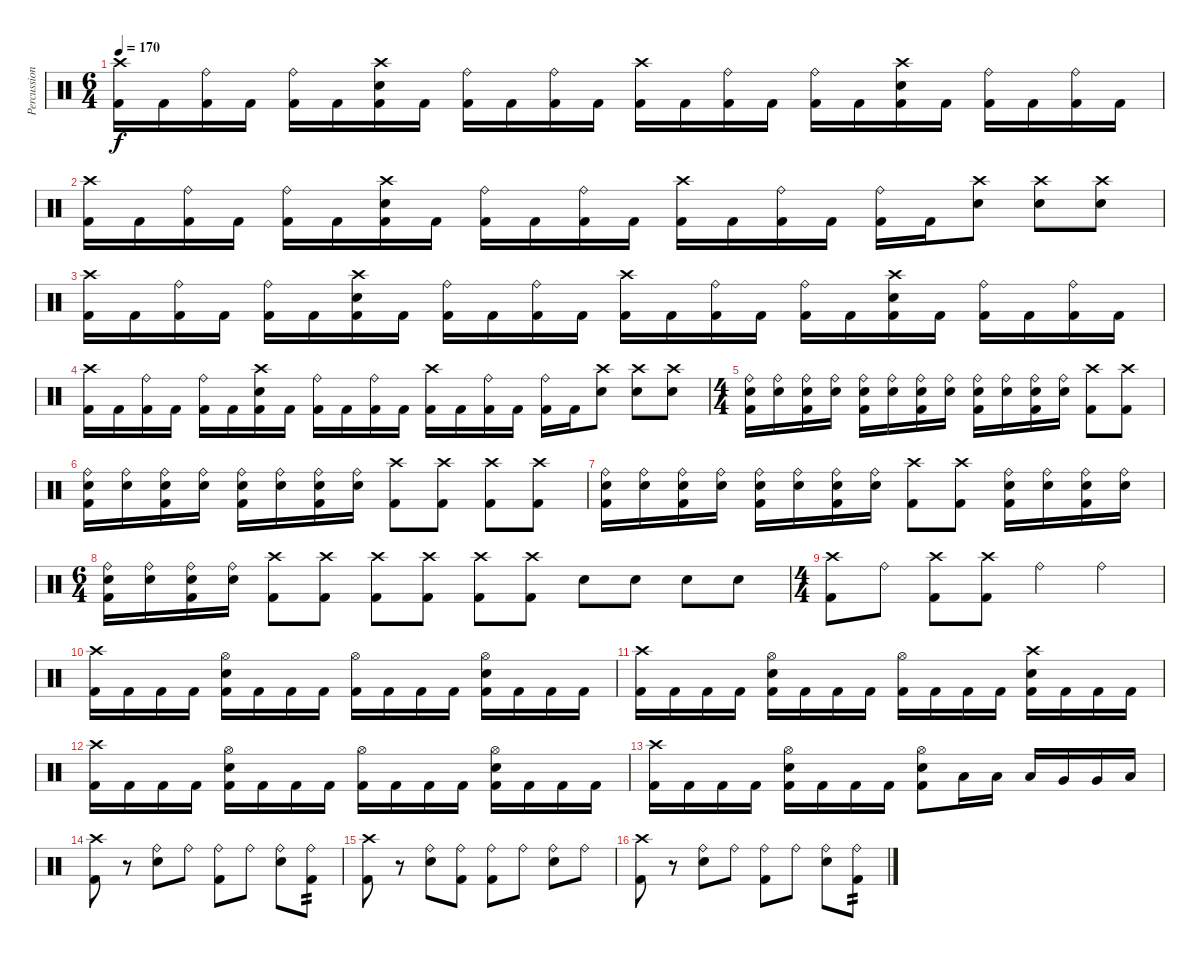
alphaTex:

\track ("Percussion" "Percussion") {instrument percussion}
\staff {score}
\articulation defaults
\ts (6 4)
\tempo 170
\clef neutral
\ks c
("Crash high (hit)" "Kick (hit) 2").16{dy f} "Kick (hit) 2".16 ("Ride (bell)" "Kick (hit) 2").16 "Kick (hit) 2".16 ("Ride (bell)" "Kick (hit) 2").16 "Kick (hit) 2".16 ("Crash high (hit)" "Electric Snare (hit)" "Kick (hit) 2").16 "Kick (hit) 2".16 ("Ride (bell)" "Kick (hit) 2").16 "Kick (hit) 2".16 ("Ride (bell)" "Kick (hit) 2").16 "Kick (hit) 2".16 ("Crash high (hit)" "Kick (hit) 2").16 "Kick (hit) 2".16 ("Ride (bell)" "Kick (hit) 2").16 "Kick (hit) 2".16 ("Ride (bell)" "Kick (hit) 2").16 "Kick (hit) 2".16 ("Crash high (hit)" "Electric Snare (hit)" "Kick (hit) 2").16 "Kick (hit) 2".16 ("Ride (bell)" "Kick (hit) 2").16 "Kick (hit) 2".16 ("Ride (bell)" "Kick (hit) 2").16 "Kick (hit) 2".16 |
("Crash high (hit)" "Kick (hit) 2").16 "Kick (hit) 2".16 ("Ride (bell)" "Kick (hit) 2").16 "Kick (hit) 2".16 ("Ride (bell)" "Kick (hit) 2").16 "Kick (hit) 2".16 ("Crash high (hit)" "Electric Snare (hit)" "Kick (hit) 2").16 "Kick (hit) 2".16 ("Ride (bell)" "Kick (hit) 2").16 "Kick (hit) 2".16 ("Ride (bell)" "Kick (hit) 2").16 "Kick (hit) 2".16 ("Crash high (hit)" "Kick (hit) 2").16 "Kick (hit) 2".16 ("Ride (bell)" "Kick (hit) 2").16 "Kick (hit) 2".16 ("Ride (bell)" "Kick (hit) 2").16 "Kick (hit) 2".16 ("Crash high (hit)" "Electric Snare (hit)").8 ("Crash high (hit)" "Electric Snare (hit)").8 ("Crash high (hit)" "Electric Snare (hit)").8 |
("Crash high (hit)" "Kick (hit) 2").16 "Kick (hit) 2".16 ("Ride (bell)" "Kick (hit) 2").16 "Kick (hit) 2".16 ("Ride (bell)" "Kick (hit) 2").16 "Kick (hit) 2".16 ("Crash high (hit)" "Electric Snare (hit)" "Kick (hit) 2").16 "Kick (hit) 2".16 ("Ride (bell)" "Kick (hit) 2").16 "Kick (hit) 2".16 ("Ride (bell)" "Kick (hit) 2").16 "Kick (hit) 2".16 ("Crash high (hit)" "Kick (hit) 2").16 "Kick (hit) 2".16 ("Ride (bell)" "Kick (hit) 2").16 "Kick (hit) 2".16 ("Ride (bell)" "Kick (hit) 2").16 "Kick (hit) 2".16 ("Crash high (hit)" "Electric Snare (hit)" "Kick (hit) 2").16 "Kick (hit) 2".16 ("Ride (bell)" "Kick (hit) 2").16 "Kick (hit) 2".16 ("Ride (bell)" "Kick (hit) 2").16 "Kick (hit) 2".16 |
("Crash high (hit)" "Kick (hit) 2").16 "Kick (hit) 2".16 ("Ride (bell)" "Kick (hit) 2").16 "Kick (hit) 2".16 ("Ride (bell)" "Kick (hit) 2").16 "Kick (hit) 2".16 ("Crash high (hit)" "Electric Snare (hit)" "Kick (hit) 2").16 "Kick (hit) 2".16 ("Ride (bell)" "Kick (hit) 2").16 "Kick (hit) 2".16 ("Ride (bell)" "Kick (hit) 2").16 "Kick (hit) 2".16 ("Crash high (hit)" "Kick (hit) 2").16 "Kick (hit) 2".16 ("Ride (bell)" "Kick (hit) 2").16 "Kick (hit) 2".16 ("Ride (bell)" "Kick (hit) 2").16 "Kick (hit) 2".16 ("Crash high (hit)" "Electric Snare (hit)").8 ("Crash high (hit)" "Electric Snare (hit)").8 ("Crash high (hit)" "Electric Snare (hit)").8 |
\ts (4 4)
("Ride (bell)" "Electric Snare (hit)" "Kick (hit) 2").16 ("Ride (bell)" "Electric Snare (hit)").16 ("Ride (bell)" "Electric Snare (hit)" "Kick (hit) 2").16 ("Ride (bell)" "Electric Snare (hit)").16 ("Ride (bell)" "Electric Snare (hit)" "Kick (hit) 2").16 ("Ride (bell)" "Electric Snare (hit)").16 ("Ride (bell)" "Electric Snare (hit)" "Kick (hit) 2").16 ("Ride (bell)" "Electric Snare (hit)").16 ("Ride (bell)" "Electric Snare (hit)" "Kick (hit) 2").16 ("Ride (bell)" "Electric Snare (hit)").16 ("Ride (bell)" "Electric Snare (hit)" "Kick (hit) 2").16 ("Ride (bell)" "Electric Snare (hit)").16 ("Crash high (hit)" "Kick (hit) 2").8 ("Crash high (hit)" "Kick (hit) 2").8 |
("Ride (bell)" "Electric Snare (hit)" "Kick (hit) 2").16 ("Ride (bell)" "Electric Snare (hit)").16 ("Ride (bell)" "Electric Snare (hit)" "Kick (hit) 2").16 ("Ride (bell)" "Electric Snare (hit)").16 ("Ride (bell)" "Electric Snare (hit)" "Kick (hit) 2").16 ("Ride (bell)" "Electric Snare (hit)").16 ("Ride (bell)" "Electric Snare (hit)" "Kick (hit) 2").16 ("Ride (bell)" "Electric Snare (hit)").16 ("Crash high (hit)" "Kick (hit) 2").8 ("Crash high (hit)" "Kick (hit) 2").8 ("Crash high (hit)" "Kick (hit) 2").8 ("Crash high (hit)" "Kick (hit) 2").8 |
("Ride (bell)" "Electric Snare (hit)" "Kick (hit) 2").16 ("Ride (bell)" "Electric Snare (hit)").16 ("Ride (bell)" "Electric Snare (hit)" "Kick (hit) 2").16 ("Ride (bell)" "Electric Snare (hit)").16 ("Ride (bell)" "Electric Snare (hit)" "Kick (hit) 2").16 ("Ride (bell)" "Electric Snare (hit)").16 ("Ride (bell)" "Electric Snare (hit)" "Kick (hit) 2").16 ("Ride (bell)" "Electric Snare (hit)").16 ("Crash high (hit)" "Kick (hit) 2").8 ("Crash high (hit)" "Kick (hit) 2").8 ("Ride (bell)" "Electric Snare (hit)" "Kick (hit) 2").16 ("Ride (bell)" "Electric Snare (hit)").16 ("Ride (bell)" "Electric Snare (hit)" "Kick (hit) 2").16 ("Ride (bell)" "Electric Snare (hit)").16 |
\ts (6 4)
("Ride (bell)" "Electric Snare (hit)" "Kick (hit) 2").16 ("Ride (bell)" "Electric Snare (hit)").16 ("Ride (bell)" "Electric Snare (hit)" "Kick (hit) 2").16 ("Ride (bell)" "Electric Snare (hit)").16 ("Crash high (hit)" "Kick (hit) 2").8 ("Crash high (hit)" "Kick (hit) 2").8 ("Crash high (hit)" "Kick (hit) 2").8 ("Crash high (hit)" "Kick (hit) 2").8 ("Crash high (hit)" "Kick (hit) 2").8 ("Crash high (hit)" "Kick (hit) 2").8 "Electric Snare (hit)".8 "Electric Snare (hit)".8 "Electric Snare (hit)".8 "Electric Snare (hit)".8 |
\ts (4 4)
("Crash high (hit)" "Kick (hit) 2").8 "Ride (bell)".8 ("Crash high (hit)" "Kick (hit) 2").8 ("Crash high (hit)" "Kick (hit) 2").8 "Ride (bell)".4 "Ride (bell)".4 |
("Crash high (hit)" "Kick (hit) 2").16 "Kick (hit) 2".16 "Kick (hit) 2".16 "Kick (hit) 2".16 ("Hi-Hat (open)" "Electric Snare (hit)" "Kick (hit) 2").16 "Kick (hit) 2".16 "Kick (hit) 2".16 "Kick (hit) 2".16 ("Hi-Hat (open)" "Kick (hit) 2").16 "Kick (hit) 2".16 "Kick (hit) 2".16 "Kick (hit) 2".16 ("Hi-Hat (open)" "Electric Snare (hit)" "Kick (hit) 2").16 "Kick (hit) 2".16 "Kick (hit) 2".16 "Kick (hit) 2".16 |
("Crash high (hit)" "Kick (hit) 2").16 "Kick (hit) 2".16 "Kick (hit) 2".16 "Kick (hit) 2".16 ("Hi-Hat (open)" "Electric Snare (hit)" "Kick (hit) 2").16 "Kick (hit) 2".16 "Kick (hit) 2".16 "Kick (hit) 2".16 ("Hi-Hat (open)" "Kick (hit) 2").16 "Kick (hit) 2".16 "Kick (hit) 2".16 "Kick (hit) 2".16 ("Crash high (hit)" "Electric Snare (hit)" "Kick (hit) 2").16 "Kick (hit) 2".16 "Kick (hit) 2".16 "Kick (hit) 2".16 |
("Crash high (hit)" "Kick (hit) 2").16 "Kick (hit) 2".16 "Kick (hit) 2".16 "Kick (hit) 2".16 ("Hi-Hat (open)" "Electric Snare (hit)" "Kick (hit) 2").16 "Kick (hit) 2".16 "Kick (hit) 2".16 "Kick (hit) 2".16 ("Hi-Hat (open)" "Kick (hit) 2").16 "Kick (hit) 2".16 "Kick (hit) 2".16 "Kick (hit) 2".16 ("Hi-Hat (open)" "Electric Snare (hit)" "Kick (hit) 2").16 "Kick (hit) 2".16 "Kick (hit) 2".16 "Kick (hit) 2".16 |
("Crash high (hit)" "Kick (hit) 2").16 "Kick (hit) 2".16 "Kick (hit) 2".16 "Kick (hit) 2".16 ("Hi-Hat (open)" "Electric Snare (hit)" "Kick (hit) 2").16 "Kick (hit) 2".16 "Kick (hit) 2".16 "Kick (hit) 2".16 ("Hi-Hat (open)" "Electric Snare (hit)" "Kick (hit) 2").8 "Low Tom (hit)".16 "Low Tom (hit)".16 "Low Tom (hit)".16 "Very Low Tom (hit)".16 "Very Low Tom (hit)".16 "Low Floor Tom (hit)".16 |
("Crash high (hit)" "Kick (hit) 2").8 r.8 ("Ride (bell)" "Electric Snare (hit)").8 "Ride (bell)".8 ("Ride (bell)" "Kick (hit) 2").8 "Ride (bell)".8 ("Ride (bell)" "Electric Snare (hit)").8 ("Ride (bell)" "Kick (hit) 2").8{tp 2} |
("Crash high (hit)" "Kick (hit) 2").8 r.8 ("Ride (bell)" "Electric Snare (hit)").8 ("Ride (bell)" "Kick (hit) 2").8 ("Ride (bell)" "Kick (hit) 2").8 "Ride (bell)".8 ("Ride (bell)" "Electric Snare (hit)").8 "Ride (bell)".8 |
("Crash high (hit)" "Kick (hit) 2").8 r.8 ("Ride (bell)" "Electric Snare (hit)").8 "Ride (bell)".8 ("Ride (bell)" "Kick (hit) 2").8 "Ride (bell)".8 ("Ride (bell)" "Electric Snare (hit)").8 ("Ride (bell)" "Kick (hit) 2").8{tp 2}
